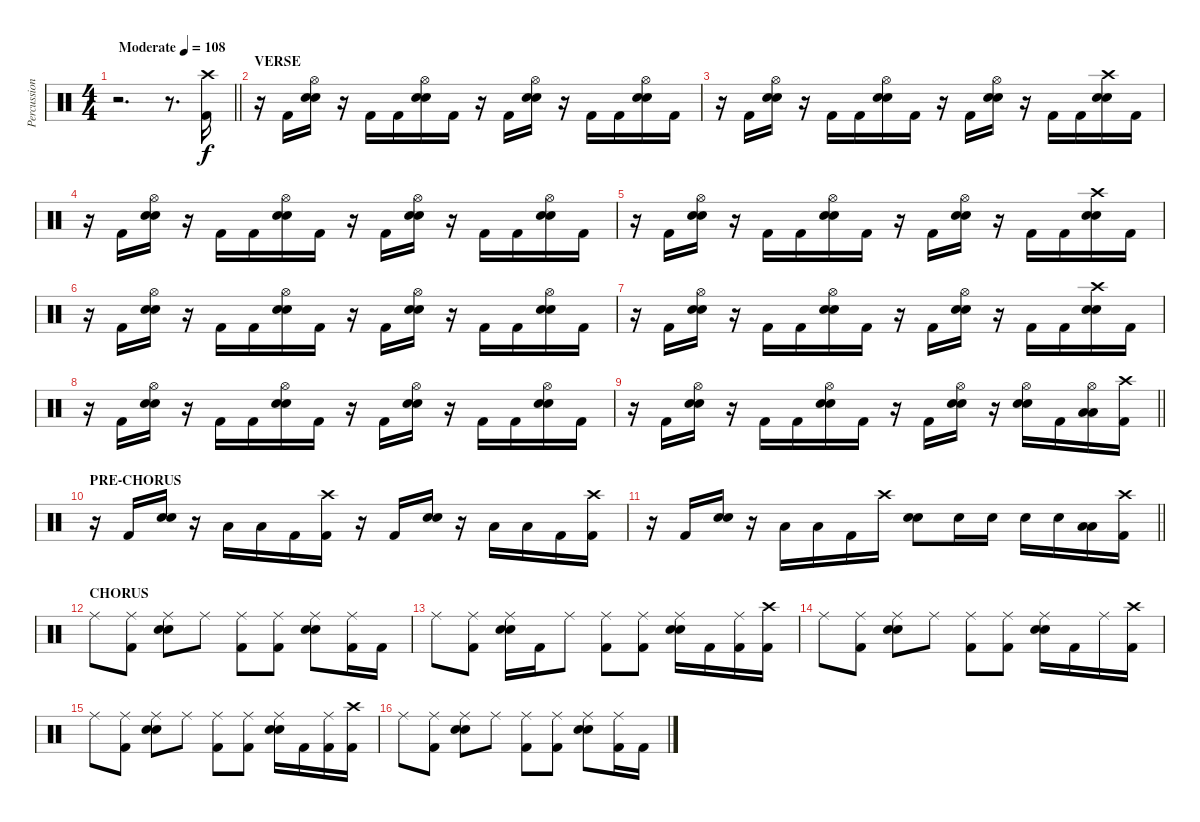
\track ("Percussion" "Percussion") {instrument percussion}
\staff {score}
\articulation defaults
\ts (4 4)
\tempo (108 "Moderate")
\clef neutral
\barLineRight lightlight
\ks c
r.2{d dy f} r.8{d} ("Crash high (hit)" "Kick (hit) 2").16 |
\section ("" "VERSE")
r.16 "Kick (hit) 2".16 ("Hi-Hat (open)" "Snare (hit) 2" "Electric Snare (hit)").16 r.16 "Kick (hit) 2".16 "Kick (hit) 2".16 ("Hi-Hat (open)" "Snare (hit) 2" "Electric Snare (hit)").16 "Kick (hit) 2".16 r.16 "Kick (hit) 2".16 ("Hi-Hat (open)" "Snare (hit) 2" "Electric Snare (hit)").16 r.16 "Kick (hit) 2".16 "Kick (hit) 2".16 ("Hi-Hat (open)" "Snare (hit) 2" "Electric Snare (hit)").16 "Kick (hit) 2".16 |
r.16 "Kick (hit) 2".16 ("Hi-Hat (open)" "Snare (hit) 2" "Electric Snare (hit)").16 r.16 "Kick (hit) 2".16 "Kick (hit) 2".16 ("Hi-Hat (open)" "Snare (hit) 2" "Electric Snare (hit)").16 "Kick (hit) 2".16 r.16 "Kick (hit) 2".16 ("Hi-Hat (open)" "Snare (hit) 2" "Electric Snare (hit)").16 r.16 "Kick (hit) 2".16 "Kick (hit) 2".16 ("Crash high (hit)" "Snare (hit) 2" "Electric Snare (hit)").16 "Kick (hit) 2".16 |
r.16 "Kick (hit) 2".16 ("Hi-Hat (open)" "Snare (hit) 2" "Electric Snare (hit)").16 r.16 "Kick (hit) 2".16 "Kick (hit) 2".16 ("Hi-Hat (open)" "Snare (hit) 2" "Electric Snare (hit)").16 "Kick (hit) 2".16 r.16 "Kick (hit) 2".16 ("Hi-Hat (open)" "Snare (hit) 2" "Electric Snare (hit)").16 r.16 "Kick (hit) 2".16 "Kick (hit) 2".16 ("Hi-Hat (open)" "Snare (hit) 2" "Electric Snare (hit)").16 "Kick (hit) 2".16 |
r.16 "Kick (hit) 2".16 ("Hi-Hat (open)" "Snare (hit) 2" "Electric Snare (hit)").16 r.16 "Kick (hit) 2".16 "Kick (hit) 2".16 ("Hi-Hat (open)" "Snare (hit) 2" "Electric Snare (hit)").16 "Kick (hit) 2".16 r.16 "Kick (hit) 2".16 ("Hi-Hat (open)" "Snare (hit) 2" "Electric Snare (hit)").16 r.16 "Kick (hit) 2".16 "Kick (hit) 2".16 ("Crash high (hit)" "Snare (hit) 2" "Electric Snare (hit)").16 "Kick (hit) 2".16 |
r.16 "Kick (hit) 2".16 ("Hi-Hat (open)" "Snare (hit) 2" "Electric Snare (hit)").16 r.16 "Kick (hit) 2".16 "Kick (hit) 2".16 ("Hi-Hat (open)" "Snare (hit) 2" "Electric Snare (hit)").16 "Kick (hit) 2".16 r.16 "Kick (hit) 2".16 ("Hi-Hat (open)" "Snare (hit) 2" "Electric Snare (hit)").16 r.16 "Kick (hit) 2".16 "Kick (hit) 2".16 ("Hi-Hat (open)" "Snare (hit) 2" "Electric Snare (hit)").16 "Kick (hit) 2".16 |
r.16 "Kick (hit) 2".16 ("Hi-Hat (open)" "Snare (hit) 2" "Electric Snare (hit)").16 r.16 "Kick (hit) 2".16 "Kick (hit) 2".16 ("Hi-Hat (open)" "Snare (hit) 2" "Electric Snare (hit)").16 "Kick (hit) 2".16 r.16 "Kick (hit) 2".16 ("Hi-Hat (open)" "Snare (hit) 2" "Electric Snare (hit)").16 r.16 "Kick (hit) 2".16 "Kick (hit) 2".16 ("Crash high (hit)" "Snare (hit) 2" "Electric Snare (hit)").16 "Kick (hit) 2".16 |
r.16 "Kick (hit) 2".16 ("Hi-Hat (open)" "Snare (hit) 2" "Electric Snare (hit)").16 r.16 "Kick (hit) 2".16 "Kick (hit) 2".16 ("Hi-Hat (open)" "Snare (hit) 2" "Electric Snare (hit)").16 "Kick (hit) 2".16 r.16 "Kick (hit) 2".16 ("Hi-Hat (open)" "Snare (hit) 2" "Electric Snare (hit)").16 r.16 "Kick (hit) 2".16 "Kick (hit) 2".16 ("Hi-Hat (open)" "Snare (hit) 2" "Electric Snare (hit)").16 "Kick (hit) 2".16 |
\barLineRight lightlight
r.16 "Kick (hit) 2".16 ("Hi-Hat (open)" "Snare (hit) 2" "Electric Snare (hit)").16 r.16 "Kick (hit) 2".16 "Kick (hit) 2".16 ("Hi-Hat (open)" "Snare (hit) 2" "Electric Snare (hit)").16 "Kick (hit) 2".16 r.16 "Kick (hit) 2".16 ("Hi-Hat (open)" "Snare (hit) 2" "Electric Snare (hit)").16 r.16 ("Hi-Hat (open)" "Snare (hit) 2" "Electric Snare (hit)").16 "Kick (hit) 2".16 ("Hi-Hat (open)" "Low Floor Tom (hit)" "Low Floor Tom (hit)").16 ("Crash high (hit)" "Kick (hit) 2").16 |
\section ("" "PRE-CHORUS")
r.16 "Kick (hit) 2".16 ("Snare (hit) 2" "Electric Snare (hit)").16 r.16 "Low Tom (hit)".16 "Low Floor Tom (hit)".16 "Kick (hit) 2".16 ("Crash high (hit)" "Kick (hit) 2").16 r.16 "Kick (hit) 2".16 ("Snare (hit) 2" "Electric Snare (hit)").16 r.16 "Low Tom (hit)".16 "Low Floor Tom (hit)".16 "Kick (hit) 2".16 ("Crash high (hit)" "Kick (hit) 2").16 |
\barLineRight lightlight
r.16 "Kick (hit) 2".16 ("Snare (hit) 2" "Electric Snare (hit)").16 r.16 "Low Tom (hit)".16 "Low Floor Tom (hit)".16 "Kick (hit) 2".16 "Crash high (hit)".16 ("Snare (hit) 2" "Electric Snare (hit)").8 "Electric Snare (hit)".16 "Electric Snare (hit)".16 "Electric Snare (hit)".16 "Electric Snare (hit)".16 ("Low Tom (hit)" "Low Tom (hit)").16 ("Crash high (hit)" "Kick (hit) 2").16 |
\section ("" "CHORUS")
"Ride (middle)".8 ("Ride (middle)" "Kick (hit) 2").8 ("Ride (middle)" "Snare (hit) 2" "Electric Snare (hit)").8 "Ride (middle)".8 ("Ride (middle)" "Kick (hit) 2").8 ("Ride (middle)" "Kick (hit) 2").8 ("Ride (middle)" "Snare (hit) 2" "Electric Snare (hit)").8 ("Ride (middle)" "Kick (hit) 2").16 "Kick (hit) 2".16 |
"Ride (middle)".8 ("Ride (middle)" "Kick (hit) 2").8 ("Ride (middle)" "Snare (hit) 2" "Electric Snare (hit)").16 "Kick (hit) 2".16 "Ride (middle)".8 ("Ride (middle)" "Kick (hit) 2").8 ("Ride (middle)" "Kick (hit) 2").8 ("Ride (middle)" "Snare (hit) 2" "Electric Snare (hit)").16 "Kick (hit) 2".16 ("Ride (middle)" "Kick (hit) 2").16 ("Crash high (hit)" "Kick (hit) 2").16 |
"Ride (middle)".8 ("Ride (middle)" "Kick (hit) 2").8 ("Ride (middle)" "Snare (hit) 2" "Electric Snare (hit)").8 "Ride (middle)".8 ("Ride (middle)" "Kick (hit) 2").8 ("Ride (middle)" "Kick (hit) 2").8 ("Ride (middle)" "Snare (hit) 2" "Electric Snare (hit)").16 "Kick (hit) 2".16 "Ride (middle)".16 ("Crash high (hit)" "Kick (hit) 2").16 |
"Ride (middle)".8 ("Ride (middle)" "Kick (hit) 2").8 ("Ride (middle)" "Snare (hit) 2" "Electric Snare (hit)").8 "Ride (middle)".8 ("Ride (middle)" "Kick (hit) 2").8 ("Ride (middle)" "Kick (hit) 2").8 ("Ride (middle)" "Snare (hit) 2" "Electric Snare (hit)").16 "Kick (hit) 2".16 ("Ride (middle)" "Kick (hit) 2").16 ("Crash high (hit)" "Kick (hit) 2").16 |
"Ride (middle)".8 ("Ride (middle)" "Kick (hit) 2").8 ("Ride (middle)" "Snare (hit) 2" "Electric Snare (hit)").8 "Ride (middle)".8 ("Ride (middle)" "Kick (hit) 2").8 ("Ride (middle)" "Kick (hit) 2").8 ("Ride (middle)" "Snare (hit) 2" "Electric Snare (hit)").8 ("Ride (middle)" "Kick (hit) 2").16 "Kick (hit) 2".16
